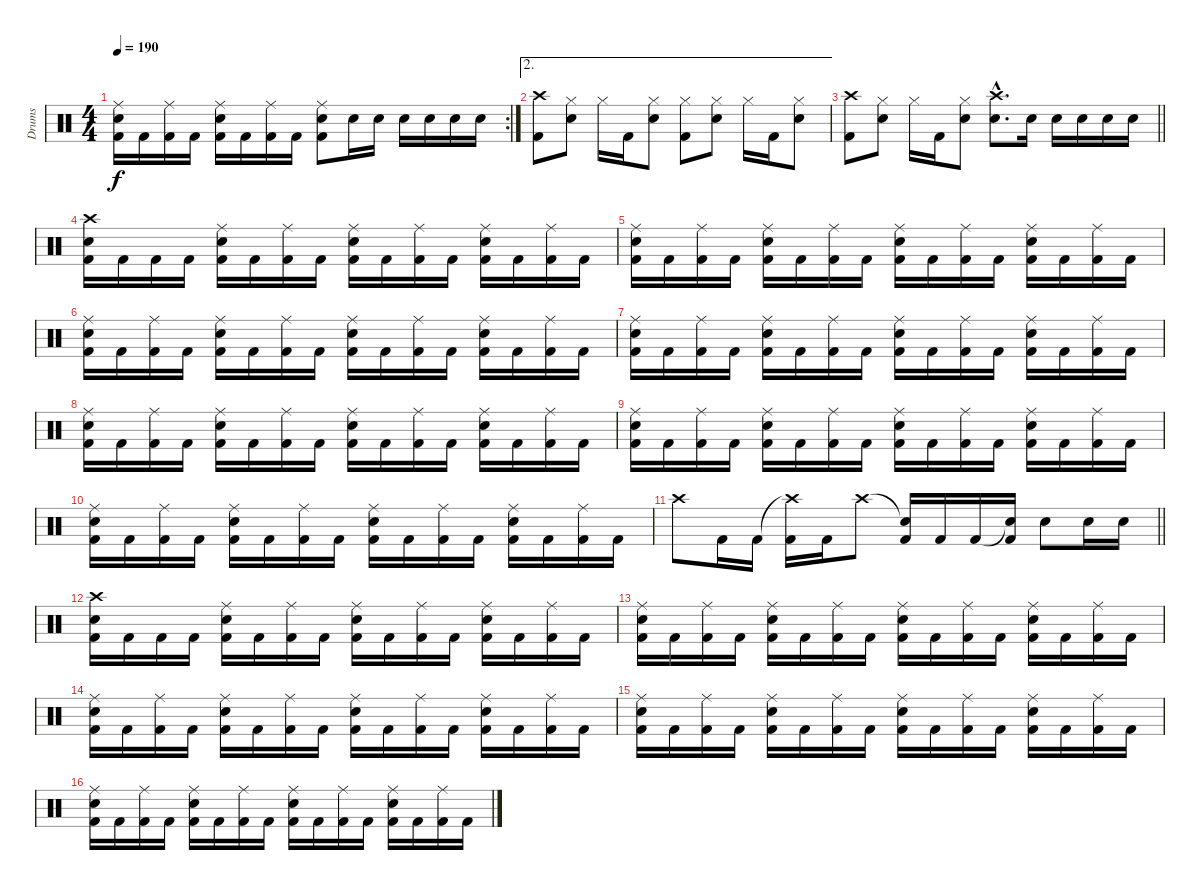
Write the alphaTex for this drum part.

\track ("Drums" "Drums") {instrument percussion}
\staff {score}
\articulation defaults
\rc 2
\ts (4 4)
\tempo 190
\clef neutral
\ks c
("Ride (middle)" "Snare (hit) 2" "Kick (hit) 2").16{dy f} "Kick (hit) 2".16 ("Ride (middle)" "Kick (hit) 2").16 "Kick (hit) 2".16 ("Ride (middle)" "Snare (hit) 2" "Kick (hit) 2").16 "Kick (hit) 2".16 ("Ride (middle)" "Kick (hit) 2").16 "Kick (hit) 2".16 ("Ride (middle)" "Snare (hit) 2" "Kick (hit) 2").8 "Snare (hit) 2".16 "Snare (hit) 2".16 "Snare (hit) 2".16 "Snare (hit) 2".16 "Snare (hit) 2".16 "Snare (hit) 2".16 |
\ae 2
("Crash high (hit)" "Kick (hit) 2").8 ("Hi-Hat (closed)" "Snare (hit) 2").8 "Hi-Hat (closed)".16 "Kick (hit) 2".16 ("Hi-Hat (closed)" "Snare (hit) 2").8 ("Hi-Hat (closed)" "Kick (hit) 2").8 ("Hi-Hat (closed)" "Snare (hit) 2").8 "Hi-Hat (closed)".16 "Kick (hit) 2".16 ("Hi-Hat (closed)" "Snare (hit) 2").8 |
\barLineRight lightlight
("Crash high (hit)" "Kick (hit) 2").8 ("Hi-Hat (closed)" "Snare (hit) 2").8 "Hi-Hat (closed)".16 "Kick (hit) 2".16 ("Hi-Hat (closed)" "Snare (hit) 2").8 ("Crash high (hit)"{hac} "Snare (hit) 2"{hac}).8{d} "Snare (hit) 2".16 "Snare (hit) 2".16 "Snare (hit) 2".16 "Snare (hit) 2".16 "Snare (hit) 2".16 |
("Crash high (hit)" "Snare (hit) 2" "Kick (hit) 2").16 "Kick (hit) 2".16 "Kick (hit) 2".16 "Kick (hit) 2".16 ("Ride (middle)" "Snare (hit) 2" "Kick (hit) 2").16 "Kick (hit) 2".16 ("Ride (middle)" "Kick (hit) 2").16 "Kick (hit) 2".16 ("Ride (middle)" "Snare (hit) 2" "Kick (hit) 2").16 "Kick (hit) 2".16 ("Ride (middle)" "Kick (hit) 2").16 "Kick (hit) 2".16 ("Ride (middle)" "Snare (hit) 2" "Kick (hit) 2").16 "Kick (hit) 2".16 ("Ride (middle)" "Kick (hit) 2").16 "Kick (hit) 2".16 |
("Ride (middle)" "Snare (hit) 2" "Kick (hit) 2").16 "Kick (hit) 2".16 ("Ride (middle)" "Kick (hit) 2").16 "Kick (hit) 2".16 ("Ride (middle)" "Snare (hit) 2" "Kick (hit) 2").16 "Kick (hit) 2".16 ("Ride (middle)" "Kick (hit) 2").16 "Kick (hit) 2".16 ("Ride (middle)" "Snare (hit) 2" "Kick (hit) 2").16 "Kick (hit) 2".16 ("Ride (middle)" "Kick (hit) 2").16 "Kick (hit) 2".16 ("Ride (middle)" "Snare (hit) 2" "Kick (hit) 2").16 "Kick (hit) 2".16 ("Ride (middle)" "Kick (hit) 2").16 "Kick (hit) 2".16 |
("Ride (middle)" "Snare (hit) 2" "Kick (hit) 2").16 "Kick (hit) 2".16 ("Ride (middle)" "Kick (hit) 2").16 "Kick (hit) 2".16 ("Ride (middle)" "Snare (hit) 2" "Kick (hit) 2").16 "Kick (hit) 2".16 ("Ride (middle)" "Kick (hit) 2").16 "Kick (hit) 2".16 ("Ride (middle)" "Snare (hit) 2" "Kick (hit) 2").16 "Kick (hit) 2".16 ("Ride (middle)" "Kick (hit) 2").16 "Kick (hit) 2".16 ("Ride (middle)" "Snare (hit) 2" "Kick (hit) 2").16 "Kick (hit) 2".16 ("Ride (middle)" "Kick (hit) 2").16 "Kick (hit) 2".16 |
("Ride (middle)" "Snare (hit) 2" "Kick (hit) 2").16 "Kick (hit) 2".16 ("Ride (middle)" "Kick (hit) 2").16 "Kick (hit) 2".16 ("Ride (middle)" "Snare (hit) 2" "Kick (hit) 2").16 "Kick (hit) 2".16 ("Ride (middle)" "Kick (hit) 2").16 "Kick (hit) 2".16 ("Ride (middle)" "Snare (hit) 2" "Kick (hit) 2").16 "Kick (hit) 2".16 ("Ride (middle)" "Kick (hit) 2").16 "Kick (hit) 2".16 ("Ride (middle)" "Snare (hit) 2" "Kick (hit) 2").16 "Kick (hit) 2".16 ("Ride (middle)" "Kick (hit) 2").16 "Kick (hit) 2".16 |
("Ride (middle)" "Snare (hit) 2" "Kick (hit) 2").16 "Kick (hit) 2".16 ("Ride (middle)" "Kick (hit) 2").16 "Kick (hit) 2".16 ("Ride (middle)" "Snare (hit) 2" "Kick (hit) 2").16 "Kick (hit) 2".16 ("Ride (middle)" "Kick (hit) 2").16 "Kick (hit) 2".16 ("Ride (middle)" "Snare (hit) 2" "Kick (hit) 2").16 "Kick (hit) 2".16 ("Ride (middle)" "Kick (hit) 2").16 "Kick (hit) 2".16 ("Ride (middle)" "Snare (hit) 2" "Kick (hit) 2").16 "Kick (hit) 2".16 ("Ride (middle)" "Kick (hit) 2").16 "Kick (hit) 2".16 |
("Ride (middle)" "Snare (hit) 2" "Kick (hit) 2").16 "Kick (hit) 2".16 ("Ride (middle)" "Kick (hit) 2").16 "Kick (hit) 2".16 ("Ride (middle)" "Snare (hit) 2" "Kick (hit) 2").16 "Kick (hit) 2".16 ("Ride (middle)" "Kick (hit) 2").16 "Kick (hit) 2".16 ("Ride (middle)" "Snare (hit) 2" "Kick (hit) 2").16 "Kick (hit) 2".16 ("Ride (middle)" "Kick (hit) 2").16 "Kick (hit) 2".16 ("Ride (middle)" "Snare (hit) 2" "Kick (hit) 2").16 "Kick (hit) 2".16 ("Ride (middle)" "Kick (hit) 2").16 "Kick (hit) 2".16 |
("Ride (middle)" "Snare (hit) 2" "Kick (hit) 2").16 "Kick (hit) 2".16 ("Ride (middle)" "Kick (hit) 2").16 "Kick (hit) 2".16 ("Ride (middle)" "Snare (hit) 2" "Kick (hit) 2").16 "Kick (hit) 2".16 ("Ride (middle)" "Kick (hit) 2").16 "Kick (hit) 2".16 ("Ride (middle)" "Snare (hit) 2" "Kick (hit) 2").16 "Kick (hit) 2".16 ("Ride (middle)" "Kick (hit) 2").16 "Kick (hit) 2".16 ("Ride (middle)" "Snare (hit) 2" "Kick (hit) 2").16 "Kick (hit) 2".16 ("Ride (middle)" "Kick (hit) 2").16 "Kick (hit) 2".16 |
\barLineRight lightlight "Crash high (hit)".8 "Kick (hit) 2".16 "Kick (hit) 2".16
("Crash high (hit)"{t} "Kick (hit) 2").16 "Kick (hit) 2".16 "Crash high (hit)".8 ("Snare (hit)"{t} "Kick (hit) 2").16 "Kick (hit) 2".16 "Kick (hit) 2".16 ("Snare (hit)"{t} "Kick (hit) 2").16 "Snare (hit) 2".8 "Snare (hit) 2".16 "Snare (hit) 2".16 |
("Crash high (hit)" "Snare (hit) 2" "Kick (hit) 2").16 "Kick (hit) 2".16 "Kick (hit) 2".16 "Kick (hit) 2".16 ("Ride (middle)" "Snare (hit) 2" "Kick (hit) 2").16 "Kick (hit) 2".16 ("Ride (middle)" "Kick (hit) 2").16 "Kick (hit) 2".16 ("Ride (middle)" "Snare (hit) 2" "Kick (hit) 2").16 "Kick (hit) 2".16 ("Ride (middle)" "Kick (hit) 2").16 "Kick (hit) 2".16 ("Ride (middle)" "Snare (hit) 2" "Kick (hit) 2").16 "Kick (hit) 2".16 ("Ride (middle)" "Kick (hit) 2").16 "Kick (hit) 2".16 |
("Ride (middle)" "Snare (hit) 2" "Kick (hit) 2").16 "Kick (hit) 2".16 ("Ride (middle)" "Kick (hit) 2").16 "Kick (hit) 2".16 ("Ride (middle)" "Snare (hit) 2" "Kick (hit) 2").16 "Kick (hit) 2".16 ("Ride (middle)" "Kick (hit) 2").16 "Kick (hit) 2".16 ("Ride (middle)" "Snare (hit) 2" "Kick (hit) 2").16 "Kick (hit) 2".16 ("Ride (middle)" "Kick (hit) 2").16 "Kick (hit) 2".16 ("Ride (middle)" "Snare (hit) 2" "Kick (hit) 2").16 "Kick (hit) 2".16 ("Ride (middle)" "Kick (hit) 2").16 "Kick (hit) 2".16 |
("Ride (middle)" "Snare (hit) 2" "Kick (hit) 2").16 "Kick (hit) 2".16 ("Ride (middle)" "Kick (hit) 2").16 "Kick (hit) 2".16 ("Ride (middle)" "Snare (hit) 2" "Kick (hit) 2").16 "Kick (hit) 2".16 ("Ride (middle)" "Kick (hit) 2").16 "Kick (hit) 2".16 ("Ride (middle)" "Snare (hit) 2" "Kick (hit) 2").16 "Kick (hit) 2".16 ("Ride (middle)" "Kick (hit) 2").16 "Kick (hit) 2".16 ("Ride (middle)" "Snare (hit) 2" "Kick (hit) 2").16 "Kick (hit) 2".16 ("Ride (middle)" "Kick (hit) 2").16 "Kick (hit) 2".16 |
("Ride (middle)" "Snare (hit) 2" "Kick (hit) 2").16 "Kick (hit) 2".16 ("Ride (middle)" "Kick (hit) 2").16 "Kick (hit) 2".16 ("Ride (middle)" "Snare (hit) 2" "Kick (hit) 2").16 "Kick (hit) 2".16 ("Ride (middle)" "Kick (hit) 2").16 "Kick (hit) 2".16 ("Ride (middle)" "Snare (hit) 2" "Kick (hit) 2").16 "Kick (hit) 2".16 ("Ride (middle)" "Kick (hit) 2").16 "Kick (hit) 2".16 ("Ride (middle)" "Snare (hit) 2" "Kick (hit) 2").16 "Kick (hit) 2".16 ("Ride (middle)" "Kick (hit) 2").16 "Kick (hit) 2".16 |
("Ride (middle)" "Snare (hit) 2" "Kick (hit) 2").16 "Kick (hit) 2".16 ("Ride (middle)" "Kick (hit) 2").16 "Kick (hit) 2".16 ("Ride (middle)" "Snare (hit) 2" "Kick (hit) 2").16 "Kick (hit) 2".16 ("Ride (middle)" "Kick (hit) 2").16 "Kick (hit) 2".16 ("Ride (middle)" "Snare (hit) 2" "Kick (hit) 2").16 "Kick (hit) 2".16 ("Ride (middle)" "Kick (hit) 2").16 "Kick (hit) 2".16 ("Ride (middle)" "Snare (hit) 2" "Kick (hit) 2").16 "Kick (hit) 2".16 ("Ride (middle)" "Kick (hit) 2").16 "Kick (hit) 2".16
